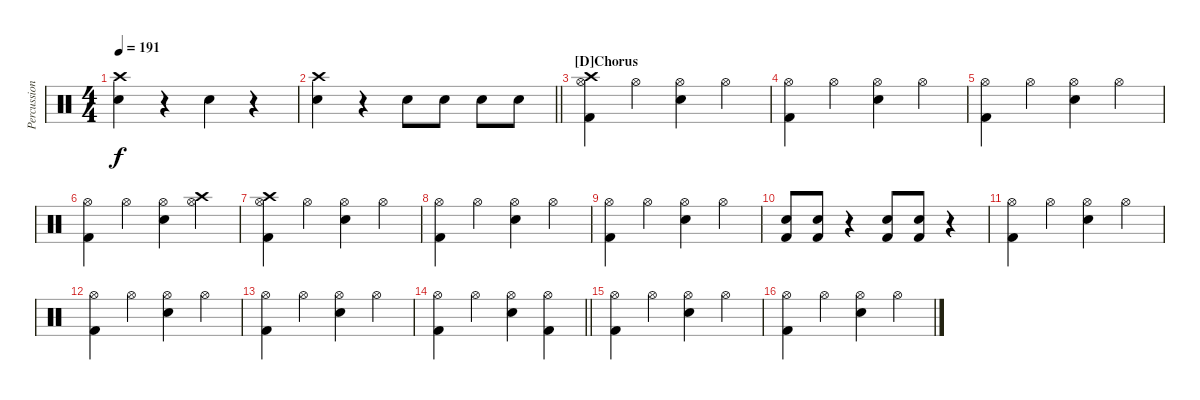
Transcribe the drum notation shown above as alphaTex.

\track ("Percussion" "Percussion") {instrument percussion}
\staff {score}
\articulation defaults
\ts (4 4)
\tempo 191
\clef neutral
\ks c
("Crash high (hit)" "Snare (hit) 2").4{dy f} r.4 "Snare (hit) 2".4 r.4 |
\barLineRight lightlight
("Crash high (hit)" "Snare (hit) 2").4 r.4 "Snare (hit) 2".8 "Snare (hit) 2".8 "Snare (hit) 2".8 "Snare (hit) 2".8 |
\section ("" "[D]Chorus")
("Hi-Hat (open)" "Crash high (hit)" "Kick (hit) 2").4 "Hi-Hat (open)".4 ("Hi-Hat (open)" "Snare (hit) 2").4 "Hi-Hat (open)".4 |
("Hi-Hat (open)" "Kick (hit) 2").4 "Hi-Hat (open)".4 ("Hi-Hat (open)" "Snare (hit) 2").4 "Hi-Hat (open)".4 |
("Hi-Hat (open)" "Kick (hit) 2").4 "Hi-Hat (open)".4 ("Hi-Hat (open)" "Snare (hit) 2").4 "Hi-Hat (open)".4 |
("Hi-Hat (open)" "Kick (hit) 2").4 "Hi-Hat (open)".4 ("Hi-Hat (open)" "Snare (hit) 2").4 ("Hi-Hat (open)" "Crash high (hit)").4 |
("Hi-Hat (open)" "Crash high (hit)" "Kick (hit) 2").4 "Hi-Hat (open)".4 ("Hi-Hat (open)" "Snare (hit) 2").4 "Hi-Hat (open)".4 |
("Hi-Hat (open)" "Kick (hit) 2").4 "Hi-Hat (open)".4 ("Hi-Hat (open)" "Snare (hit) 2").4 "Hi-Hat (open)".4 |
("Hi-Hat (open)" "Kick (hit) 2").4 "Hi-Hat (open)".4 ("Hi-Hat (open)" "Snare (hit) 2").4 "Hi-Hat (open)".4 |
("Kick (hit) 2" "Snare (hit) 2").8 ("Kick (hit) 2" "Snare (hit) 2").8 r.4 ("Kick (hit) 2" "Snare (hit) 2").8 ("Kick (hit) 2" "Snare (hit) 2").8 r.4 |
("Hi-Hat (open)" "Kick (hit) 2").4 "Hi-Hat (open)".4 ("Hi-Hat (open)" "Snare (hit) 2").4 "Hi-Hat (open)".4 |
("Hi-Hat (open)" "Kick (hit) 2").4 "Hi-Hat (open)".4 ("Hi-Hat (open)" "Snare (hit) 2").4 "Hi-Hat (open)".4 |
("Hi-Hat (open)" "Kick (hit) 2").4 "Hi-Hat (open)".4 ("Hi-Hat (open)" "Snare (hit) 2").4 "Hi-Hat (open)".4 |
\barLineRight lightlight
("Hi-Hat (open)" "Kick (hit) 2").4 "Hi-Hat (open)".4 ("Hi-Hat (open)" "Snare (hit) 2").4 ("Hi-Hat (open)" "Kick (hit) 2").4 |
("Hi-Hat (open)" "Kick (hit) 2").4 "Hi-Hat (open)".4 ("Hi-Hat (open)" "Snare (hit) 2").4 "Hi-Hat (open)".4 |
("Hi-Hat (open)" "Kick (hit) 2").4 "Hi-Hat (open)".4 ("Hi-Hat (open)" "Snare (hit) 2").4 "Hi-Hat (open)".4
